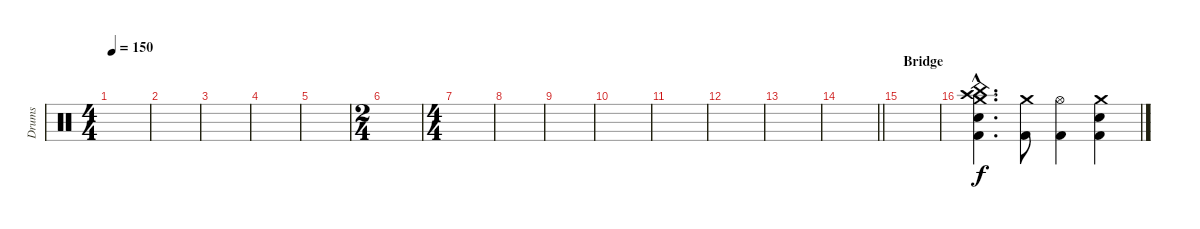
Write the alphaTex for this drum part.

\track ("Drums" "Drums") {instrument percussion}
\staff {score}
\articulation defaults
\ts (4 4)
\tempo 150
\clef neutral
\ks c
|
|
|
|
|
\ts (2 4)
|
\ts (4 4)
|
|
|
|
|
|
|
\barLineRight lightlight
|
\section ("" "Bridge")
|
("Crash medium (hit)"{hac} "Crash high (hit)"{hac} "China (hit)"{hac} "Kick (hit) 2"{hac} "Electric Snare (hit)"{hac}).4{d} ("Crash medium (hit)" "Kick (hit) 2").8 ("Hi-Hat (open)" "Kick (hit) 2").4 ("Crash medium (hit)" "Kick (hit) 2" "Electric Snare (hit)").4
